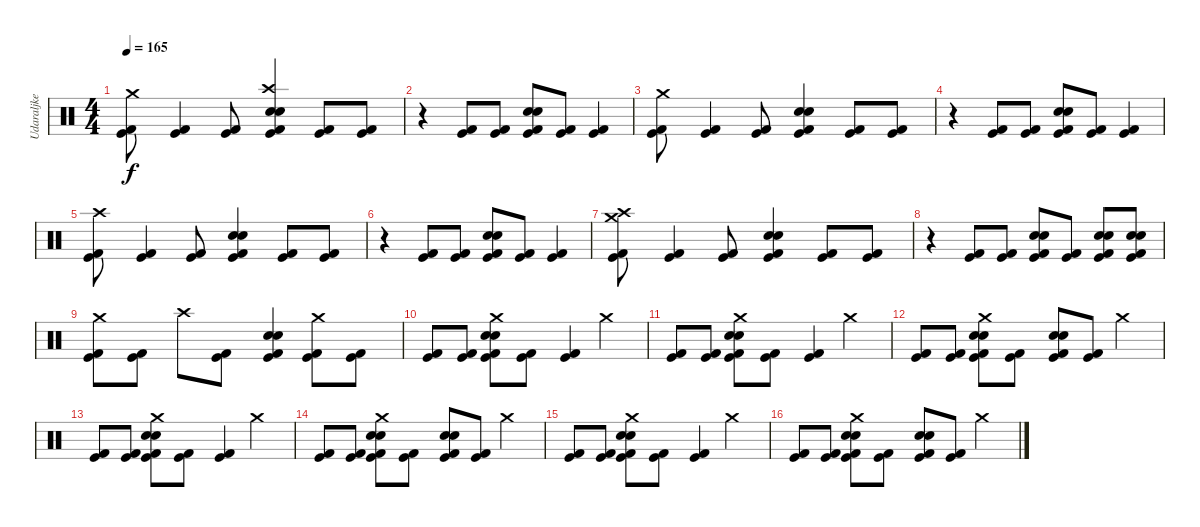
\track ("Udaraljke" "Udaraljke") {instrument percussion}
\staff {score}
\articulation defaults
\ts (4 4)
\tempo 165
\clef neutral
\ks c
("Crash medium (hit)" "Kick (hit) 2" "Kick (hit)").8{dy f} ("Kick (hit) 2" "Kick (hit)").4 ("Kick (hit) 2" "Kick (hit)").8 ("Crash high (hit)" "Snare (hit) 2" "Snare (hit) 2" "Kick (hit) 2" "Kick (hit)").4 ("Kick (hit) 2" "Kick (hit)").8 ("Kick (hit) 2" "Kick (hit)").8 |
r.4 ("Kick (hit) 2" "Kick (hit)").8 ("Kick (hit) 2" "Kick (hit)").8 ("Snare (hit) 2" "Snare (hit) 2" "Kick (hit) 2" "Kick (hit)").8 ("Kick (hit) 2" "Kick (hit)").8 ("Kick (hit) 2" "Kick (hit)").4 |
("Crash medium (hit)" "Kick (hit) 2" "Kick (hit)").8 ("Kick (hit) 2" "Kick (hit)").4 ("Kick (hit) 2" "Kick (hit)").8 ("Snare (hit) 2" "Snare (hit) 2" "Kick (hit) 2" "Kick (hit)").4 ("Kick (hit) 2" "Kick (hit)").8 ("Kick (hit) 2" "Kick (hit)").8 |
r.4 ("Kick (hit) 2" "Kick (hit)").8 ("Kick (hit) 2" "Kick (hit)").8 ("Snare (hit) 2" "Snare (hit) 2" "Kick (hit) 2" "Kick (hit)").8 ("Kick (hit) 2" "Kick (hit)").8 ("Kick (hit) 2" "Kick (hit)").4 |
("Crash high (hit)" "Kick (hit) 2" "Kick (hit)").8 ("Kick (hit) 2" "Kick (hit)").4 ("Kick (hit) 2" "Kick (hit)").8 ("Snare (hit) 2" "Snare (hit) 2" "Kick (hit) 2" "Kick (hit)").4 ("Kick (hit) 2" "Kick (hit)").8 ("Kick (hit) 2" "Kick (hit)").8 |
r.4 ("Kick (hit) 2" "Kick (hit)").8 ("Kick (hit) 2" "Kick (hit)").8 ("Snare (hit) 2" "Snare (hit) 2" "Kick (hit) 2" "Kick (hit)").8 ("Kick (hit) 2" "Kick (hit)").8 ("Kick (hit) 2" "Kick (hit)").4 |
("Crash medium (hit)" "Crash high (hit)" "Kick (hit) 2" "Kick (hit)").8 ("Kick (hit) 2" "Kick (hit)").4 ("Kick (hit) 2" "Kick (hit)").8 ("Snare (hit) 2" "Snare (hit) 2" "Kick (hit) 2" "Kick (hit)").4 ("Kick (hit) 2" "Kick (hit)").8 ("Kick (hit) 2" "Kick (hit)").8 |
r.4 ("Kick (hit) 2" "Kick (hit)").8 ("Kick (hit) 2" "Kick (hit)").8 ("Snare (hit) 2" "Snare (hit) 2" "Kick (hit) 2" "Kick (hit)").8 ("Kick (hit) 2" "Kick (hit)").8 ("Snare (hit) 2" "Snare (hit) 2" "Kick (hit) 2" "Kick (hit)").8 ("Snare (hit) 2" "Snare (hit) 2" "Kick (hit) 2" "Kick (hit)").8 |
("Crash medium (hit)" "Kick (hit) 2" "Kick (hit)").8 ("Kick (hit) 2" "Kick (hit)").8 "Crash high (hit)".8 ("Kick (hit) 2" "Kick (hit)").8 ("Snare (hit) 2" "Snare (hit) 2" "Kick (hit) 2" "Kick (hit)").4 ("Crash medium (hit)" "Kick (hit) 2" "Kick (hit)").8 ("Kick (hit) 2" "Kick (hit)").8 |
("Kick (hit) 2" "Kick (hit)").8 ("Kick (hit) 2" "Kick (hit)").8 ("Crash medium (hit)" "Snare (hit) 2" "Snare (hit) 2" "Kick (hit) 2" "Kick (hit)").8 ("Kick (hit) 2" "Kick (hit)").8 ("Kick (hit) 2" "Kick (hit)").4 "Crash medium (hit)".4 |
("Kick (hit) 2" "Kick (hit)").8 ("Kick (hit) 2" "Kick (hit)").8 ("Crash medium (hit)" "Snare (hit) 2" "Snare (hit) 2" "Kick (hit) 2" "Kick (hit)").8 ("Kick (hit) 2" "Kick (hit)").8 ("Kick (hit) 2" "Kick (hit)").4 "Crash medium (hit)".4 |
("Kick (hit) 2" "Kick (hit)").8 ("Kick (hit) 2" "Kick (hit)").8 ("Crash medium (hit)" "Snare (hit) 2" "Snare (hit) 2" "Kick (hit) 2" "Kick (hit)").8 ("Kick (hit) 2" "Kick (hit)").8 ("Snare (hit) 2" "Snare (hit) 2" "Kick (hit) 2" "Kick (hit)").8 ("Kick (hit) 2" "Kick (hit)").8 "Crash medium (hit)".4 |
("Kick (hit) 2" "Kick (hit)").8 ("Kick (hit) 2" "Kick (hit)").8 ("Crash medium (hit)" "Snare (hit) 2" "Snare (hit) 2" "Kick (hit) 2" "Kick (hit)").8 ("Kick (hit) 2" "Kick (hit)").8 ("Kick (hit) 2" "Kick (hit)").4 "Crash medium (hit)".4 |
("Kick (hit) 2" "Kick (hit)").8 ("Kick (hit) 2" "Kick (hit)").8 ("Crash medium (hit)" "Snare (hit) 2" "Snare (hit) 2" "Kick (hit) 2" "Kick (hit)").8 ("Kick (hit) 2" "Kick (hit)").8 ("Snare (hit) 2" "Snare (hit) 2" "Kick (hit) 2" "Kick (hit)").8 ("Kick (hit) 2" "Kick (hit)").8 "Crash medium (hit)".4 |
("Kick (hit) 2" "Kick (hit)").8 ("Kick (hit) 2" "Kick (hit)").8 ("Crash medium (hit)" "Snare (hit) 2" "Snare (hit) 2" "Kick (hit) 2" "Kick (hit)").8 ("Kick (hit) 2" "Kick (hit)").8 ("Kick (hit) 2" "Kick (hit)").4 "Crash medium (hit)".4 |
("Kick (hit) 2" "Kick (hit)").8 ("Kick (hit) 2" "Kick (hit)").8 ("Crash medium (hit)" "Snare (hit) 2" "Snare (hit) 2" "Kick (hit) 2" "Kick (hit)").8 ("Kick (hit) 2" "Kick (hit)").8 ("Snare (hit) 2" "Snare (hit) 2" "Kick (hit) 2" "Kick (hit)").8 ("Kick (hit) 2" "Kick (hit)").8 "Crash medium (hit)".4
